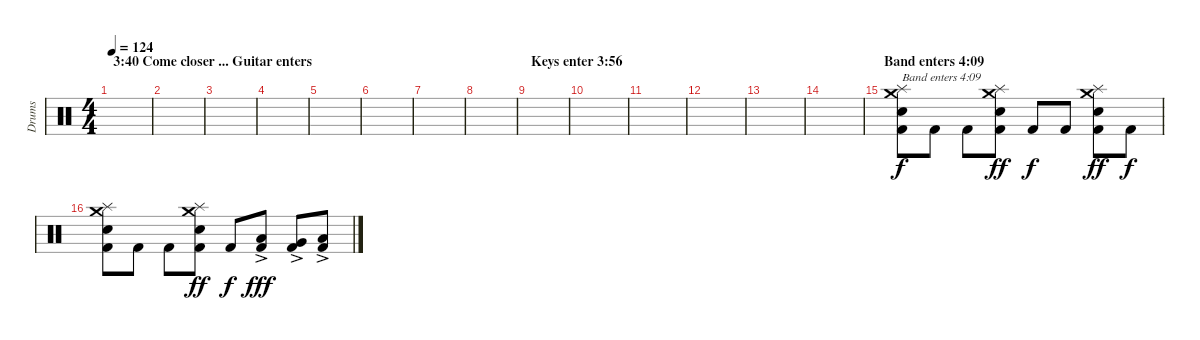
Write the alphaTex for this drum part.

\track ("Drums" "Drums") {instrument percussion}
\staff {score}
\articulation defaults
\ts (4 4)
\section ("" "3:40 Come closer ... Guitar enters")
\tempo 124
\clef neutral
\ks c
|
|
|
|
|
|
|
|
\section ("" "Keys enter 3:56")
|
|
|
|
|
|
\section ("" "Band enters 4:09")
("Kick (hit) 2" "Electric Snare (hit)" "Splash (hit)" "Crash medium (hit)").8{txt "Band enters 4:09" dy f} "Kick (hit) 2".8 "Kick (hit) 2".8 ("Kick (hit) 2" "Electric Snare (hit)" "Splash (hit)" "Crash medium (hit)").8{dy ff} "Kick (hit) 2".8{dy f} "Kick (hit) 2".8 ("Kick (hit) 2" "Electric Snare (hit)" "Splash (hit)" "Crash medium (hit)").8{dy ff} "Kick (hit) 2".8{dy f} |
("Kick (hit) 2" "Electric Snare (hit)" "Splash (hit)" "Crash medium (hit)").8 "Kick (hit) 2".8 "Kick (hit) 2".8 ("Kick (hit) 2" "Electric Snare (hit)" "Splash (hit)" "Crash medium (hit)").8{dy ff} "Kick (hit) 2".8{dy f} ("Kick (hit) 2" "Low Tom (hit)"{ac}).8{dy fff} ("Kick (hit) 2" "Very Low Tom (hit)"{ac}).8 ("Kick (hit) 2" "Low Floor Tom (hit)"{ac}).8
